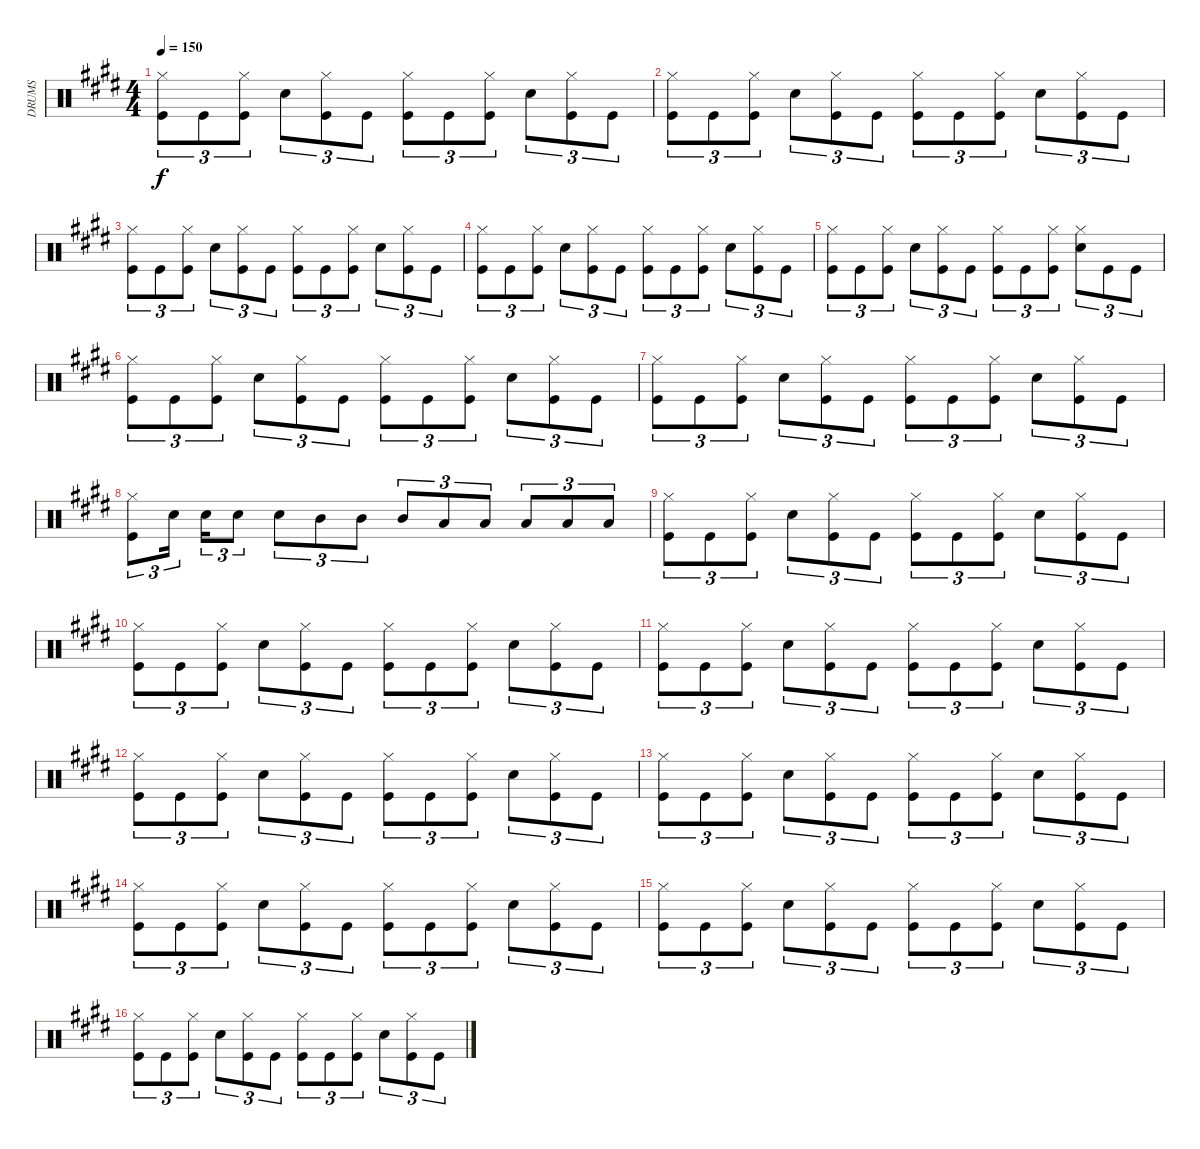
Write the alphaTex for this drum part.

\track ("DRUMS" "DRUMS") {instrument percussion}
\staff {score}
\articulation defaults
\ts (4 4)
\tempo 150
\clef neutral
\ks e
("Hi-Hat (closed)" "Kick (hit)").8{tu (3 2) dy f} "Kick (hit)".8{tu (3 2)} ("Hi-Hat (closed)" "Kick (hit)").8{tu (3 2)} "Snare (hit) 2".8{tu (3 2)} ("Hi-Hat (closed)" "Kick (hit)").8{tu (3 2)} "Kick (hit)".8{tu (3 2)} ("Hi-Hat (closed)" "Kick (hit)").8{tu (3 2)} "Kick (hit)".8{tu (3 2)} ("Hi-Hat (closed)" "Kick (hit)").8{tu (3 2)} "Snare (hit) 2".8{tu (3 2)} ("Hi-Hat (closed)" "Kick (hit)").8{tu (3 2)} "Kick (hit)".8{tu (3 2)} |
("Hi-Hat (closed)" "Kick (hit)").8{tu (3 2)} "Kick (hit)".8{tu (3 2)} ("Hi-Hat (closed)" "Kick (hit)").8{tu (3 2)} "Snare (hit) 2".8{tu (3 2)} ("Hi-Hat (closed)" "Kick (hit)").8{tu (3 2)} "Kick (hit)".8{tu (3 2)} ("Hi-Hat (closed)" "Kick (hit)").8{tu (3 2)} "Kick (hit)".8{tu (3 2)} ("Hi-Hat (closed)" "Kick (hit)").8{tu (3 2)} "Snare (hit) 2".8{tu (3 2)} ("Hi-Hat (closed)" "Kick (hit)").8{tu (3 2)} "Kick (hit)".8{tu (3 2)} |
("Hi-Hat (closed)" "Kick (hit)").8{tu (3 2)} "Kick (hit)".8{tu (3 2)} ("Hi-Hat (closed)" "Kick (hit)").8{tu (3 2)} "Snare (hit) 2".8{tu (3 2)} ("Hi-Hat (closed)" "Kick (hit)").8{tu (3 2)} "Kick (hit)".8{tu (3 2)} ("Hi-Hat (closed)" "Kick (hit)").8{tu (3 2)} "Kick (hit)".8{tu (3 2)} ("Hi-Hat (closed)" "Kick (hit)").8{tu (3 2)} "Snare (hit) 2".8{tu (3 2)} ("Hi-Hat (closed)" "Kick (hit)").8{tu (3 2)} "Kick (hit)".8{tu (3 2)} |
("Hi-Hat (closed)" "Kick (hit)").8{tu (3 2)} "Kick (hit)".8{tu (3 2)} ("Hi-Hat (closed)" "Kick (hit)").8{tu (3 2)} "Snare (hit) 2".8{tu (3 2)} ("Hi-Hat (closed)" "Kick (hit)").8{tu (3 2)} "Kick (hit)".8{tu (3 2)} ("Hi-Hat (closed)" "Kick (hit)").8{tu (3 2)} "Kick (hit)".8{tu (3 2)} ("Hi-Hat (closed)" "Kick (hit)").8{tu (3 2)} "Snare (hit) 2".8{tu (3 2)} ("Hi-Hat (closed)" "Kick (hit)").8{tu (3 2)} "Kick (hit)".8{tu (3 2)} |
("Hi-Hat (closed)" "Kick (hit)").8{tu (3 2)} "Kick (hit)".8{tu (3 2)} ("Hi-Hat (closed)" "Kick (hit)").8{tu (3 2)} "Snare (hit) 2".8{tu (3 2)} ("Hi-Hat (closed)" "Kick (hit)").8{tu (3 2)} "Kick (hit)".8{tu (3 2)} ("Hi-Hat (closed)" "Kick (hit)").8{tu (3 2)} "Kick (hit)".8{tu (3 2)} ("Hi-Hat (closed)" "Kick (hit)").8{tu (3 2)} ("Hi-Hat (closed)" "Snare (hit) 2").8{tu (3 2)} "Kick (hit)".8{tu (3 2)} "Kick (hit)".8{tu (3 2)} |
("Hi-Hat (closed)" "Kick (hit)").8{tu (3 2)} "Kick (hit)".8{tu (3 2)} ("Hi-Hat (closed)" "Kick (hit)").8{tu (3 2)} "Snare (hit) 2".8{tu (3 2)} ("Hi-Hat (closed)" "Kick (hit)").8{tu (3 2)} "Kick (hit)".8{tu (3 2)} ("Hi-Hat (closed)" "Kick (hit)").8{tu (3 2)} "Kick (hit)".8{tu (3 2)} ("Hi-Hat (closed)" "Kick (hit)").8{tu (3 2)} "Snare (hit) 2".8{tu (3 2)} ("Hi-Hat (closed)" "Kick (hit)").8{tu (3 2)} "Kick (hit)".8{tu (3 2)} |
("Hi-Hat (closed)" "Kick (hit)").8{tu (3 2)} "Kick (hit)".8{tu (3 2)} ("Hi-Hat (closed)" "Kick (hit)").8{tu (3 2)} "Snare (hit) 2".8{tu (3 2)} ("Hi-Hat (closed)" "Kick (hit)").8{tu (3 2)} "Kick (hit)".8{tu (3 2)} ("Hi-Hat (closed)" "Kick (hit)").8{tu (3 2)} "Kick (hit)".8{tu (3 2)} ("Hi-Hat (closed)" "Kick (hit)").8{tu (3 2)} "Snare (hit) 2".8{tu (3 2)} ("Hi-Hat (closed)" "Kick (hit)").8{tu (3 2)} "Kick (hit)".8{tu (3 2)} |
("Hi-Hat (closed)" "Kick (hit)").8{tu (3 2)} "Snare (hit) 2".16{tu (3 2) beam splitsecondary} "Snare (hit) 2".16{tu (3 2)} "Snare (hit) 2".8{tu (3 2)} "Snare (hit) 2".8{tu (3 2)} "Mid Tom (hit)".8{tu (3 2)} "Mid Tom (hit)".8{tu (3 2)} "Mid Tom (hit)".8{tu (3 2)} "Low Tom (hit)".8{tu (3 2)} "Low Tom (hit)".8{tu (3 2)} "Low Tom (hit)".8{tu (3 2)} "Low Tom (hit)".8{tu (3 2)} "Low Tom (hit)".8{tu (3 2)} |
("Hi-Hat (closed)" "Kick (hit)").8{tu (3 2)} "Kick (hit)".8{tu (3 2)} ("Hi-Hat (closed)" "Kick (hit)").8{tu (3 2)} "Snare (hit) 2".8{tu (3 2)} ("Hi-Hat (closed)" "Kick (hit)").8{tu (3 2)} "Kick (hit)".8{tu (3 2)} ("Hi-Hat (closed)" "Kick (hit)").8{tu (3 2)} "Kick (hit)".8{tu (3 2)} ("Hi-Hat (closed)" "Kick (hit)").8{tu (3 2)} "Snare (hit) 2".8{tu (3 2)} ("Hi-Hat (closed)" "Kick (hit)").8{tu (3 2)} "Kick (hit)".8{tu (3 2)} |
("Hi-Hat (closed)" "Kick (hit)").8{tu (3 2)} "Kick (hit)".8{tu (3 2)} ("Hi-Hat (closed)" "Kick (hit)").8{tu (3 2)} "Snare (hit) 2".8{tu (3 2)} ("Hi-Hat (closed)" "Kick (hit)").8{tu (3 2)} "Kick (hit)".8{tu (3 2)} ("Hi-Hat (closed)" "Kick (hit)").8{tu (3 2)} "Kick (hit)".8{tu (3 2)} ("Hi-Hat (closed)" "Kick (hit)").8{tu (3 2)} "Snare (hit) 2".8{tu (3 2)} ("Hi-Hat (closed)" "Kick (hit)").8{tu (3 2)} "Kick (hit)".8{tu (3 2)} |
("Hi-Hat (closed)" "Kick (hit)").8{tu (3 2)} "Kick (hit)".8{tu (3 2)} ("Hi-Hat (closed)" "Kick (hit)").8{tu (3 2)} "Snare (hit) 2".8{tu (3 2)} ("Hi-Hat (closed)" "Kick (hit)").8{tu (3 2)} "Kick (hit)".8{tu (3 2)} ("Hi-Hat (closed)" "Kick (hit)").8{tu (3 2)} "Kick (hit)".8{tu (3 2)} ("Hi-Hat (closed)" "Kick (hit)").8{tu (3 2)} "Snare (hit) 2".8{tu (3 2)} ("Hi-Hat (closed)" "Kick (hit)").8{tu (3 2)} "Kick (hit)".8{tu (3 2)} |
("Hi-Hat (closed)" "Kick (hit)").8{tu (3 2)} "Kick (hit)".8{tu (3 2)} ("Hi-Hat (closed)" "Kick (hit)").8{tu (3 2)} "Snare (hit) 2".8{tu (3 2)} ("Hi-Hat (closed)" "Kick (hit)").8{tu (3 2)} "Kick (hit)".8{tu (3 2)} ("Hi-Hat (closed)" "Kick (hit)").8{tu (3 2)} "Kick (hit)".8{tu (3 2)} ("Hi-Hat (closed)" "Kick (hit)").8{tu (3 2)} "Snare (hit) 2".8{tu (3 2)} ("Hi-Hat (closed)" "Kick (hit)").8{tu (3 2)} "Kick (hit)".8{tu (3 2)} |
("Hi-Hat (closed)" "Kick (hit)").8{tu (3 2)} "Kick (hit)".8{tu (3 2)} ("Hi-Hat (closed)" "Kick (hit)").8{tu (3 2)} "Snare (hit) 2".8{tu (3 2)} ("Hi-Hat (closed)" "Kick (hit)").8{tu (3 2)} "Kick (hit)".8{tu (3 2)} ("Hi-Hat (closed)" "Kick (hit)").8{tu (3 2)} "Kick (hit)".8{tu (3 2)} ("Hi-Hat (closed)" "Kick (hit)").8{tu (3 2)} "Snare (hit) 2".8{tu (3 2)} ("Hi-Hat (closed)" "Kick (hit)").8{tu (3 2)} "Kick (hit)".8{tu (3 2)} |
("Hi-Hat (closed)" "Kick (hit)").8{tu (3 2)} "Kick (hit)".8{tu (3 2)} ("Hi-Hat (closed)" "Kick (hit)").8{tu (3 2)} "Snare (hit) 2".8{tu (3 2)} ("Hi-Hat (closed)" "Kick (hit)").8{tu (3 2)} "Kick (hit)".8{tu (3 2)} ("Hi-Hat (closed)" "Kick (hit)").8{tu (3 2)} "Kick (hit)".8{tu (3 2)} ("Hi-Hat (closed)" "Kick (hit)").8{tu (3 2)} "Snare (hit) 2".8{tu (3 2)} ("Hi-Hat (closed)" "Kick (hit)").8{tu (3 2)} "Kick (hit)".8{tu (3 2)} |
("Hi-Hat (closed)" "Kick (hit)").8{tu (3 2)} "Kick (hit)".8{tu (3 2)} ("Hi-Hat (closed)" "Kick (hit)").8{tu (3 2)} "Snare (hit) 2".8{tu (3 2)} ("Hi-Hat (closed)" "Kick (hit)").8{tu (3 2)} "Kick (hit)".8{tu (3 2)} ("Hi-Hat (closed)" "Kick (hit)").8{tu (3 2)} "Kick (hit)".8{tu (3 2)} ("Hi-Hat (closed)" "Kick (hit)").8{tu (3 2)} "Snare (hit) 2".8{tu (3 2)} ("Hi-Hat (closed)" "Kick (hit)").8{tu (3 2)} "Kick (hit)".8{tu (3 2)} |
("Hi-Hat (closed)" "Kick (hit)").8{tu (3 2)} "Kick (hit)".8{tu (3 2)} ("Hi-Hat (closed)" "Kick (hit)").8{tu (3 2)} "Snare (hit) 2".8{tu (3 2)} ("Hi-Hat (closed)" "Kick (hit)").8{tu (3 2)} "Kick (hit)".8{tu (3 2)} ("Hi-Hat (closed)" "Kick (hit)").8{tu (3 2)} "Kick (hit)".8{tu (3 2)} ("Hi-Hat (closed)" "Kick (hit)").8{tu (3 2)} "Snare (hit) 2".8{tu (3 2)} ("Hi-Hat (closed)" "Kick (hit)").8{tu (3 2)} "Kick (hit)".8{tu (3 2)}
